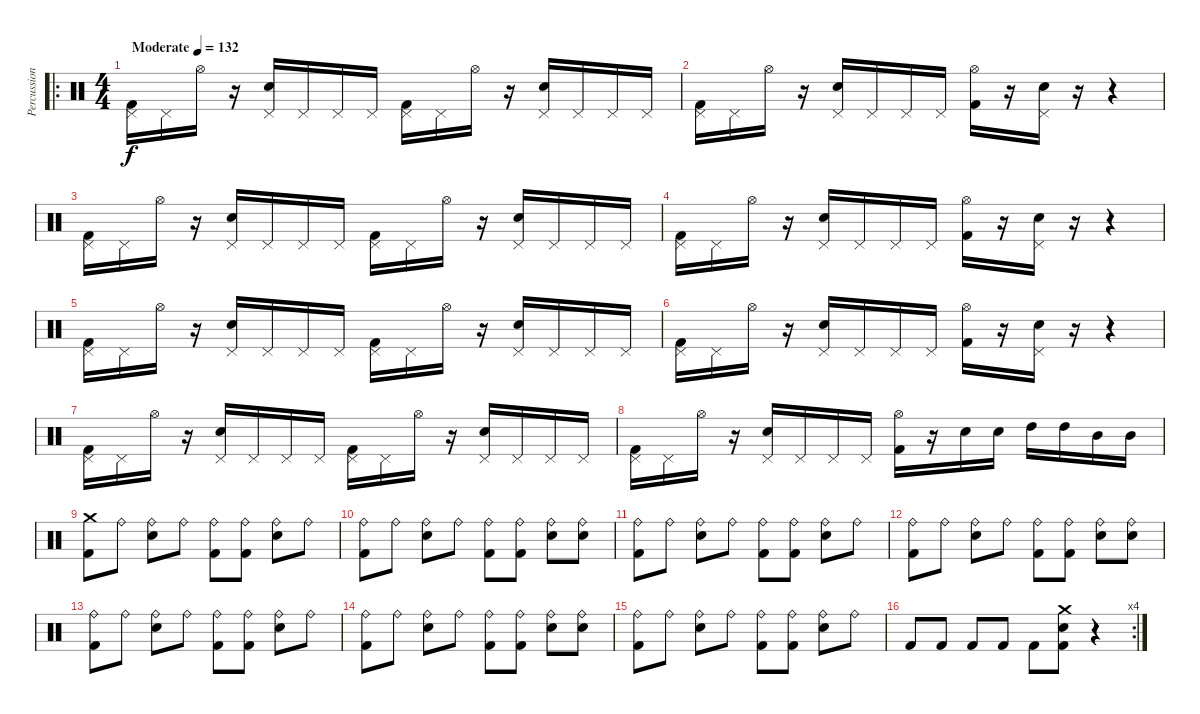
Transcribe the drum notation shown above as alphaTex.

\track ("Percussion" "Percussion") {instrument percussion}
\staff {score}
\articulation defaults
\ro
\ts (4 4)
\tempo (132 "Moderate")
\clef neutral
\ks c
("Pedal Hi-Hat (hit)" "Kick (hit) 2").16{dy f} "Pedal Hi-Hat (hit)".16 "Hi-Hat (open)".16 r.16 ("Pedal Hi-Hat (hit)" "Electric Snare (hit)").16 "Pedal Hi-Hat (hit)".16 "Pedal Hi-Hat (hit)".16 "Pedal Hi-Hat (hit)".16 ("Pedal Hi-Hat (hit)" "Kick (hit) 2").16 "Pedal Hi-Hat (hit)".16 "Hi-Hat (open)".16 r.16 ("Pedal Hi-Hat (hit)" "Electric Snare (hit)").16 "Pedal Hi-Hat (hit)".16 "Pedal Hi-Hat (hit)".16 "Pedal Hi-Hat (hit)".16 |
("Pedal Hi-Hat (hit)" "Kick (hit) 2").16 "Pedal Hi-Hat (hit)".16 "Hi-Hat (open)".16 r.16 ("Pedal Hi-Hat (hit)" "Electric Snare (hit)").16 "Pedal Hi-Hat (hit)".16 "Pedal Hi-Hat (hit)".16 "Pedal Hi-Hat (hit)".16 ("Hi-Hat (open)" "Kick (hit) 2").16 r.16 ("Pedal Hi-Hat (hit)" "Electric Snare (hit)").16 r.16 r.4 |
("Pedal Hi-Hat (hit)" "Kick (hit) 2").16 "Pedal Hi-Hat (hit)".16 "Hi-Hat (open)".16 r.16 ("Pedal Hi-Hat (hit)" "Electric Snare (hit)").16 "Pedal Hi-Hat (hit)".16 "Pedal Hi-Hat (hit)".16 "Pedal Hi-Hat (hit)".16 ("Pedal Hi-Hat (hit)" "Kick (hit) 2").16 "Pedal Hi-Hat (hit)".16 "Hi-Hat (open)".16 r.16 ("Pedal Hi-Hat (hit)" "Electric Snare (hit)").16 "Pedal Hi-Hat (hit)".16 "Pedal Hi-Hat (hit)".16 "Pedal Hi-Hat (hit)".16 |
("Pedal Hi-Hat (hit)" "Kick (hit) 2").16 "Pedal Hi-Hat (hit)".16 "Hi-Hat (open)".16 r.16 ("Pedal Hi-Hat (hit)" "Electric Snare (hit)").16 "Pedal Hi-Hat (hit)".16 "Pedal Hi-Hat (hit)".16 "Pedal Hi-Hat (hit)".16 ("Hi-Hat (open)" "Kick (hit) 2").16 r.16 ("Pedal Hi-Hat (hit)" "Electric Snare (hit)").16 r.16 r.4 |
("Pedal Hi-Hat (hit)" "Kick (hit) 2").16 "Pedal Hi-Hat (hit)".16 "Hi-Hat (open)".16 r.16 ("Pedal Hi-Hat (hit)" "Electric Snare (hit)").16 "Pedal Hi-Hat (hit)".16 "Pedal Hi-Hat (hit)".16 "Pedal Hi-Hat (hit)".16 ("Pedal Hi-Hat (hit)" "Kick (hit) 2").16 "Pedal Hi-Hat (hit)".16 "Hi-Hat (open)".16 r.16 ("Pedal Hi-Hat (hit)" "Electric Snare (hit)").16 "Pedal Hi-Hat (hit)".16 "Pedal Hi-Hat (hit)".16 "Pedal Hi-Hat (hit)".16 |
("Pedal Hi-Hat (hit)" "Kick (hit) 2").16 "Pedal Hi-Hat (hit)".16 "Hi-Hat (open)".16 r.16 ("Pedal Hi-Hat (hit)" "Electric Snare (hit)").16 "Pedal Hi-Hat (hit)".16 "Pedal Hi-Hat (hit)".16 "Pedal Hi-Hat (hit)".16 ("Hi-Hat (open)" "Kick (hit) 2").16 r.16 ("Pedal Hi-Hat (hit)" "Electric Snare (hit)").16 r.16 r.4 |
("Pedal Hi-Hat (hit)" "Kick (hit) 2").16 "Pedal Hi-Hat (hit)".16 "Hi-Hat (open)".16 r.16 ("Pedal Hi-Hat (hit)" "Electric Snare (hit)").16 "Pedal Hi-Hat (hit)".16 "Pedal Hi-Hat (hit)".16 "Pedal Hi-Hat (hit)".16 ("Pedal Hi-Hat (hit)" "Kick (hit) 2").16 "Pedal Hi-Hat (hit)".16 "Hi-Hat (open)".16 r.16 ("Pedal Hi-Hat (hit)" "Electric Snare (hit)").16 "Pedal Hi-Hat (hit)".16 "Pedal Hi-Hat (hit)".16 "Pedal Hi-Hat (hit)".16 |
("Pedal Hi-Hat (hit)" "Kick (hit) 2").16 "Pedal Hi-Hat (hit)".16 "Hi-Hat (open)".16 r.16 ("Pedal Hi-Hat (hit)" "Electric Snare (hit)").16 "Pedal Hi-Hat (hit)".16 "Pedal Hi-Hat (hit)".16 "Pedal Hi-Hat (hit)".16 ("Hi-Hat (open)" "Kick (hit) 2").16 r.16 "Electric Snare (hit)".16 "Electric Snare (hit)".16 "High Tom (hit)".16 "High Tom (hit)".16 "Mid Tom (hit)".16 "Mid Tom (hit)".16 |
("Crash medium (hit)" "Kick (hit) 2").8 "Ride (bell)".8 ("Ride (bell)" "Electric Snare (hit)").8 "Ride (bell)".8 ("Ride (bell)" "Kick (hit) 2").8 ("Ride (bell)" "Kick (hit) 2").8 ("Ride (bell)" "Electric Snare (hit)").8 "Ride (bell)".8 |
("Ride (bell)" "Kick (hit) 2").8 "Ride (bell)".8 ("Ride (bell)" "Electric Snare (hit)").8 "Ride (bell)".8 ("Ride (bell)" "Kick (hit) 2").8 ("Ride (bell)" "Kick (hit) 2").8 ("Ride (bell)" "Electric Snare (hit)").8 ("Ride (bell)" "Electric Snare (hit)").8 |
("Ride (bell)" "Kick (hit) 2").8 "Ride (bell)".8 ("Ride (bell)" "Electric Snare (hit)").8 "Ride (bell)".8 ("Ride (bell)" "Kick (hit) 2").8 ("Ride (bell)" "Kick (hit) 2").8 ("Ride (bell)" "Electric Snare (hit)").8 "Ride (bell)".8 |
("Ride (bell)" "Kick (hit) 2").8 "Ride (bell)".8 ("Ride (bell)" "Electric Snare (hit)").8 "Ride (bell)".8 ("Ride (bell)" "Kick (hit) 2").8 ("Ride (bell)" "Kick (hit) 2").8 ("Ride (bell)" "Electric Snare (hit)").8 ("Ride (bell)" "Electric Snare (hit)").8 |
("Ride (bell)" "Kick (hit) 2").8 "Ride (bell)".8 ("Ride (bell)" "Electric Snare (hit)").8 "Ride (bell)".8 ("Ride (bell)" "Kick (hit) 2").8 ("Ride (bell)" "Kick (hit) 2").8 ("Ride (bell)" "Electric Snare (hit)").8 "Ride (bell)".8 |
("Ride (bell)" "Kick (hit) 2").8 "Ride (bell)".8 ("Ride (bell)" "Electric Snare (hit)").8 "Ride (bell)".8 ("Ride (bell)" "Kick (hit) 2").8 ("Ride (bell)" "Kick (hit) 2").8 ("Ride (bell)" "Electric Snare (hit)").8 ("Ride (bell)" "Electric Snare (hit)").8 |
("Ride (bell)" "Kick (hit) 2").8 "Ride (bell)".8 ("Ride (bell)" "Electric Snare (hit)").8 "Ride (bell)".8 ("Ride (bell)" "Kick (hit) 2").8 ("Ride (bell)" "Kick (hit) 2").8 ("Ride (bell)" "Electric Snare (hit)").8 "Ride (bell)".8 |
\rc 4 "Kick (hit) 2".8 "Kick (hit) 2".8 "Kick (hit) 2".8 "Kick (hit) 2".8 "Kick (hit) 2".8
("Crash medium (hit)" "Electric Snare (hit)" "Kick (hit) 2").8 r.4
